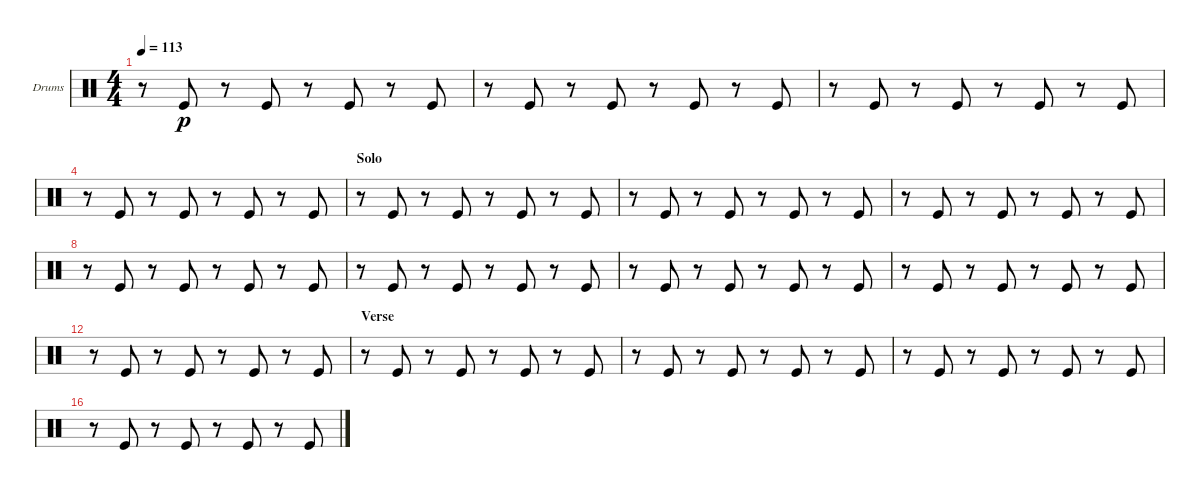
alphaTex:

\bracketExtendMode nobrackets
\firstSystemTrackNameOrientation horizontal
\otherSystemsTrackNameOrientation horizontal
\defaultBarNumberDisplay FirstOfSystem
\track ("Drumkit" "Drums") {solo instrument percussion}
\staff {score}
\articulation defaults
\ts (4 4)
\tempo 113
\clef neutral
\ks c
r.8{dy p} "Kick (hit)".8 r.8 "Kick (hit)".8 r.8 "Kick (hit)".8 r.8 "Kick (hit)".8 |
r.8 "Kick (hit)".8 r.8 "Kick (hit)".8 r.8 "Kick (hit)".8 r.8 "Kick (hit)".8 |
r.8 "Kick (hit)".8 r.8 "Kick (hit)".8 r.8 "Kick (hit)".8 r.8 "Kick (hit)".8 |
r.8 "Kick (hit)".8 r.8 "Kick (hit)".8 r.8 "Kick (hit)".8 r.8 "Kick (hit)".8 |
\section ("" "Solo")
\scale
0.25 r.8 "Kick (hit)".8 r.8 "Kick (hit)".8 r.8 "Kick (hit)".8 r.8 "Kick (hit)".8 |
\scale
0.25 r.8 "Kick (hit)".8 r.8 "Kick (hit)".8 r.8 "Kick (hit)".8 r.8 "Kick (hit)".8 |
\scale
0.25 r.8 "Kick (hit)".8 r.8 "Kick (hit)".8 r.8 "Kick (hit)".8 r.8 "Kick (hit)".8 |
\scale
0.25 r.8 "Kick (hit)".8 r.8 "Kick (hit)".8 r.8 "Kick (hit)".8 r.8 "Kick (hit)".8 |
\scale
0.25 r.8 "Kick (hit)".8 r.8 "Kick (hit)".8 r.8 "Kick (hit)".8 r.8 "Kick (hit)".8 |
\scale
0.25 r.8 "Kick (hit)".8 r.8 "Kick (hit)".8 r.8 "Kick (hit)".8 r.8 "Kick (hit)".8 |
\scale
0.25 r.8 "Kick (hit)".8 r.8 "Kick (hit)".8 r.8 "Kick (hit)".8 r.8 "Kick (hit)".8 |
\scale
0.25 r.8 "Kick (hit)".8 r.8 "Kick (hit)".8 r.8 "Kick (hit)".8 r.8 "Kick (hit)".8 |
\section ("" "Verse")
\scale
0.25 r.8 "Kick (hit)".8 r.8 "Kick (hit)".8 r.8 "Kick (hit)".8 r.8 "Kick (hit)".8 |
\scale
0.25 r.8 "Kick (hit)".8 r.8 "Kick (hit)".8 r.8 "Kick (hit)".8 r.8 "Kick (hit)".8 |
\scale
0.25 r.8 "Kick (hit)".8 r.8 "Kick (hit)".8 r.8 "Kick (hit)".8 r.8 "Kick (hit)".8 |
\scale
0.25 r.8 "Kick (hit)".8 r.8 "Kick (hit)".8 r.8 "Kick (hit)".8 r.8 "Kick (hit)".8
